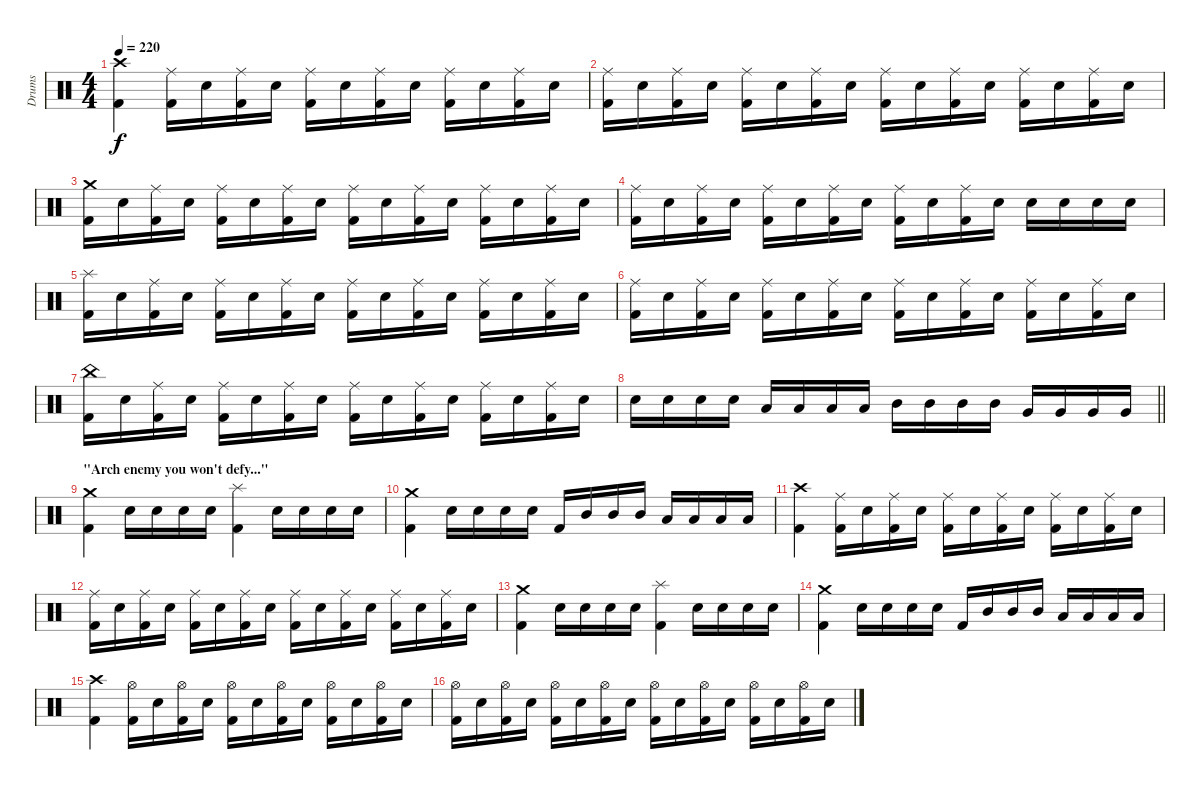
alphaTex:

\track ("Drums" "Drums") {instrument percussion}
\staff {score}
\articulation defaults
\ts (4 4)
\tempo 220
\clef neutral
\ks c
("Crash high (hit)" "Kick (hit) 2").4{dy f} ("Ride (middle)" "Kick (hit) 2").16 "Snare (hit) 2".16 ("Ride (middle)" "Kick (hit) 2").16 "Snare (hit) 2".16 ("Ride (middle)" "Kick (hit) 2").16 "Snare (hit) 2".16 ("Ride (middle)" "Kick (hit) 2").16 "Snare (hit) 2".16 ("Ride (middle)" "Kick (hit) 2").16 "Snare (hit) 2".16 ("Ride (middle)" "Kick (hit) 2").16 "Snare (hit) 2".16 |
("Ride (middle)" "Kick (hit) 2").16 "Snare (hit) 2".16 ("Ride (middle)" "Kick (hit) 2").16 "Snare (hit) 2".16 ("Ride (middle)" "Kick (hit) 2").16 "Snare (hit) 2".16 ("Ride (middle)" "Kick (hit) 2").16 "Snare (hit) 2".16 ("Ride (middle)" "Kick (hit) 2").16 "Snare (hit) 2".16 ("Ride (middle)" "Kick (hit) 2").16 "Snare (hit) 2".16 ("Ride (middle)" "Kick (hit) 2").16 "Snare (hit) 2".16 ("Ride (middle)" "Kick (hit) 2").16 "Snare (hit) 2".16 |
("Crash medium (hit)" "Kick (hit) 2").16 "Snare (hit) 2".16 ("Ride (middle)" "Kick (hit) 2").16 "Snare (hit) 2".16 ("Ride (middle)" "Kick (hit) 2").16 "Snare (hit) 2".16 ("Ride (middle)" "Kick (hit) 2").16 "Snare (hit) 2".16 ("Ride (middle)" "Kick (hit) 2").16 "Snare (hit) 2".16 ("Ride (middle)" "Kick (hit) 2").16 "Snare (hit) 2".16 ("Ride (middle)" "Kick (hit) 2").16 "Snare (hit) 2".16 ("Ride (middle)" "Kick (hit) 2").16 "Snare (hit) 2".16 |
("Ride (middle)" "Kick (hit) 2").16 "Snare (hit) 2".16 ("Ride (middle)" "Kick (hit) 2").16 "Snare (hit) 2".16 ("Ride (middle)" "Kick (hit) 2").16 "Snare (hit) 2".16 ("Ride (middle)" "Kick (hit) 2").16 "Snare (hit) 2".16 ("Ride (middle)" "Kick (hit) 2").16 "Snare (hit) 2".16 ("Ride (middle)" "Kick (hit) 2").16 "Snare (hit) 2".16 "Snare (hit) 2".16 "Snare (hit) 2".16 "Snare (hit) 2".16 "Snare (hit) 2".16 |
("Splash (hit)" "Kick (hit) 2").16 "Snare (hit) 2".16 ("Ride (middle)" "Kick (hit) 2").16 "Snare (hit) 2".16 ("Ride (middle)" "Kick (hit) 2").16 "Snare (hit) 2".16 ("Ride (middle)" "Kick (hit) 2").16 "Snare (hit) 2".16 ("Ride (middle)" "Kick (hit) 2").16 "Snare (hit) 2".16 ("Ride (middle)" "Kick (hit) 2").16 "Snare (hit) 2".16 ("Ride (middle)" "Kick (hit) 2").16 "Snare (hit) 2".16 ("Ride (middle)" "Kick (hit) 2").16 "Snare (hit) 2".16 |
("Ride (middle)" "Kick (hit) 2").16 "Snare (hit) 2".16 ("Ride (middle)" "Kick (hit) 2").16 "Snare (hit) 2".16 ("Ride (middle)" "Kick (hit) 2").16 "Snare (hit) 2".16 ("Ride (middle)" "Kick (hit) 2").16 "Snare (hit) 2".16 ("Ride (middle)" "Kick (hit) 2").16 "Snare (hit) 2".16 ("Ride (middle)" "Kick (hit) 2").16 "Snare (hit) 2".16 ("Ride (middle)" "Kick (hit) 2").16 "Snare (hit) 2".16 ("Ride (middle)" "Kick (hit) 2").16 "Snare (hit) 2".16 |
("China (hit)" "Kick (hit) 2").16 "Snare (hit) 2".16 ("Ride (middle)" "Kick (hit) 2").16 "Snare (hit) 2".16 ("Ride (middle)" "Kick (hit) 2").16 "Snare (hit) 2".16 ("Ride (middle)" "Kick (hit) 2").16 "Snare (hit) 2".16 ("Ride (middle)" "Kick (hit) 2").16 "Snare (hit) 2".16 ("Ride (middle)" "Kick (hit) 2").16 "Snare (hit) 2".16 ("Ride (middle)" "Kick (hit) 2").16 "Snare (hit) 2".16 ("Ride (middle)" "Kick (hit) 2").16 "Snare (hit) 2".16 |
\barLineRight lightlight "Snare (hit) 2".16 "Snare (hit) 2".16 "Snare (hit) 2".16 "Snare (hit) 2".16 "Low Tom (hit)".16 "Low Tom (hit)".16 "Low Tom (hit)".16 "Low Tom (hit)".16 "Mid Tom (hit)".16 "Mid Tom (hit)".16 "Mid Tom (hit)".16 "Mid Tom (hit)".16 "Very Low Tom (hit)".16 "Very Low Tom (hit)".16 "Very Low Tom (hit)".16 "Very Low Tom (hit)".16
|
\section ("" "\"Arch enemy you won't defy...\"")
("Crash medium (hit)" "Kick (hit) 2").4 "Snare (hit) 2".16 "Snare (hit) 2".16 "Snare (hit) 2".16 "Snare (hit) 2".16 ("Splash (hit)" "Kick (hit) 2").4 "Snare (hit) 2".16 "Snare (hit) 2".16 "Snare (hit) 2".16 "Snare (hit) 2".16 |
("Crash medium (hit)" "Kick (hit) 2").4 "Snare (hit) 2".16 "Snare (hit) 2".16 "Snare (hit) 2".16 "Snare (hit) 2".16 "Kick (hit) 2".16 "Mid Tom (hit)".16 "Mid Tom (hit)".16 "Mid Tom (hit)".16 "Low Tom (hit)".16 "Low Tom (hit)".16 "Low Tom (hit)".16 "Low Tom (hit)".16 |
("Crash high (hit)" "Kick (hit) 2").4 ("Ride (middle)" "Kick (hit) 2").16 "Snare (hit) 2".16 ("Ride (middle)" "Kick (hit) 2").16 "Snare (hit) 2".16 ("Ride (middle)" "Kick (hit) 2").16 "Snare (hit) 2".16 ("Ride (middle)" "Kick (hit) 2").16 "Snare (hit) 2".16 ("Ride (middle)" "Kick (hit) 2").16 "Snare (hit) 2".16 ("Ride (middle)" "Kick (hit) 2").16 "Snare (hit) 2".16 |
("Ride (middle)" "Kick (hit) 2").16 "Snare (hit) 2".16 ("Ride (middle)" "Kick (hit) 2").16 "Snare (hit) 2".16 ("Ride (middle)" "Kick (hit) 2").16 "Snare (hit) 2".16 ("Ride (middle)" "Kick (hit) 2").16 "Snare (hit) 2".16 ("Ride (middle)" "Kick (hit) 2").16 "Snare (hit) 2".16 ("Ride (middle)" "Kick (hit) 2").16 "Snare (hit) 2".16 ("Ride (middle)" "Kick (hit) 2").16 "Snare (hit) 2".16 ("Ride (middle)" "Kick (hit) 2").16 "Snare (hit) 2".16 |
("Crash medium (hit)" "Kick (hit) 2").4 "Snare (hit) 2".16 "Snare (hit) 2".16 "Snare (hit) 2".16 "Snare (hit) 2".16 ("Splash (hit)" "Kick (hit) 2").4 "Snare (hit) 2".16 "Snare (hit) 2".16 "Snare (hit) 2".16 "Snare (hit) 2".16 |
("Crash medium (hit)" "Kick (hit) 2").4 "Snare (hit) 2".16 "Snare (hit) 2".16 "Snare (hit) 2".16 "Snare (hit) 2".16 "Kick (hit) 2".16 "Mid Tom (hit)".16 "Mid Tom (hit)".16 "Mid Tom (hit)".16 "Low Tom (hit)".16 "Low Tom (hit)".16 "Low Tom (hit)".16 "Low Tom (hit)".16 |
("Crash high (hit)" "Kick (hit) 2").4 ("Hi-Hat (open)" "Kick (hit) 2").16 "Snare (hit) 2".16 ("Hi-Hat (open)" "Kick (hit) 2").16 "Snare (hit) 2".16 ("Hi-Hat (open)" "Kick (hit) 2").16 "Snare (hit) 2".16 ("Hi-Hat (open)" "Kick (hit) 2").16 "Snare (hit) 2".16 ("Hi-Hat (open)" "Kick (hit) 2").16 "Snare (hit) 2".16 ("Hi-Hat (open)" "Kick (hit) 2").16 "Snare (hit) 2".16 |
("Hi-Hat (open)" "Kick (hit) 2").16 "Snare (hit) 2".16 ("Hi-Hat (open)" "Kick (hit) 2").16 "Snare (hit) 2".16 ("Hi-Hat (open)" "Kick (hit) 2").16 "Snare (hit) 2".16 ("Hi-Hat (open)" "Kick (hit) 2").16 "Snare (hit) 2".16 ("Hi-Hat (open)" "Kick (hit) 2").16 "Snare (hit) 2".16 ("Hi-Hat (open)" "Kick (hit) 2").16 "Snare (hit) 2".16 ("Hi-Hat (open)" "Kick (hit) 2").16 "Snare (hit) 2".16 ("Hi-Hat (open)" "Kick (hit) 2").16 "Snare (hit) 2".16
